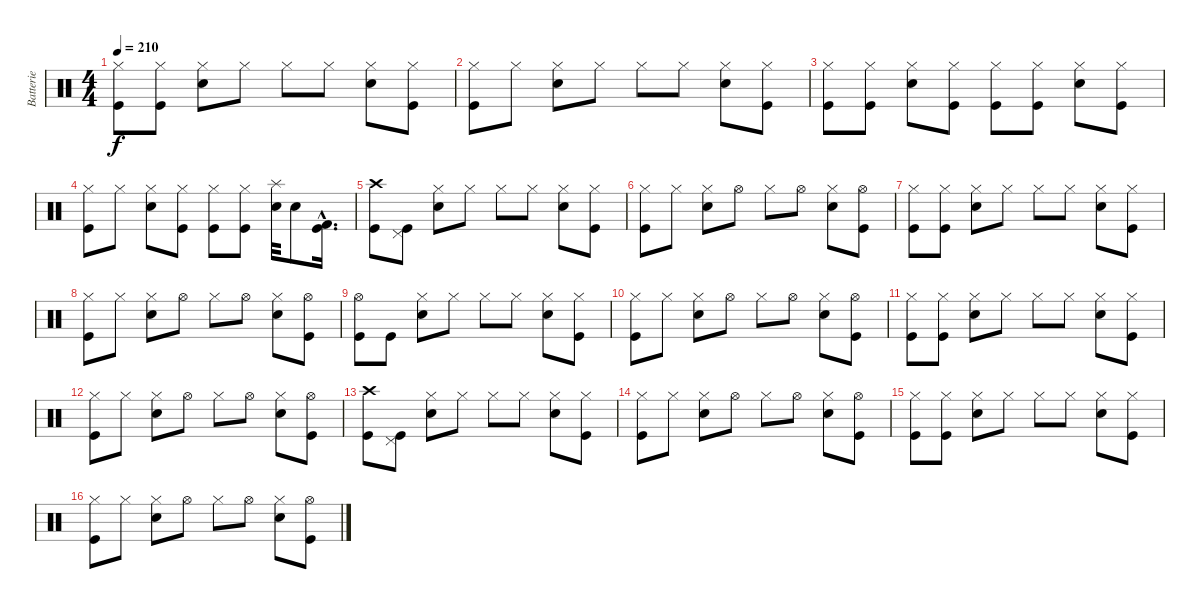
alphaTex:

\track ("Batterie" "Batterie") {instrument percussion}
\staff {score}
\articulation defaults
\ts (4 4)
\tempo 210
\clef neutral
\ks c
("Hi-Hat (closed)" "Kick (hit)").8{dy f} ("Hi-Hat (closed)" "Kick (hit)").8 ("Hi-Hat (closed)" "Snare (hit) 2").8 "Hi-Hat (closed)".8 "Hi-Hat (closed)".8 "Hi-Hat (closed)".8 ("Hi-Hat (closed)" "Snare (hit) 2").8 ("Hi-Hat (closed)" "Kick (hit)").8 |
("Hi-Hat (closed)" "Kick (hit)").8 "Hi-Hat (closed)".8 ("Hi-Hat (closed)" "Snare (hit) 2").8 "Hi-Hat (closed)".8 "Hi-Hat (closed)".8 "Hi-Hat (closed)".8 ("Hi-Hat (closed)" "Snare (hit) 2").8 ("Hi-Hat (closed)" "Kick (hit)").8 |
("Hi-Hat (closed)" "Kick (hit)").8 ("Hi-Hat (closed)" "Kick (hit)").8 ("Hi-Hat (closed)" "Snare (hit) 2").8 ("Hi-Hat (closed)" "Kick (hit)").8 ("Hi-Hat (closed)" "Kick (hit)").8 ("Hi-Hat (closed)" "Kick (hit)").8 ("Hi-Hat (closed)" "Snare (hit) 2").8 ("Hi-Hat (closed)" "Kick (hit)").8 |
("Hi-Hat (closed)" "Kick (hit)").8 "Hi-Hat (closed)".8 ("Hi-Hat (closed)" "Snare (hit) 2").8 ("Hi-Hat (closed)" "Kick (hit)").8 ("Hi-Hat (closed)" "Kick (hit)").8 ("Hi-Hat (closed)" "Kick (hit)").8 ("Splash (hit)" "Snare (hit) 2").32 "Snare (hit) 2".8 ("Kick (hit) 2"{hac} "Kick (hit)"{hac}).16{d} |
("Crash high (hit)" "Kick (hit)").8 ("Pedal Hi-Hat (hit)" "Kick (hit)").8 ("Hi-Hat (closed)" "Snare (hit) 2").8 "Hi-Hat (closed)".8 "Hi-Hat (closed)".8 "Hi-Hat (closed)".8 ("Hi-Hat (closed)" "Snare (hit) 2").8 ("Hi-Hat (closed)" "Kick (hit)").8 |
("Hi-Hat (closed)" "Kick (hit)").8 "Hi-Hat (closed)".8 ("Hi-Hat (closed)" "Snare (hit) 2").8 "Hi-Hat (open)".8 "Hi-Hat (closed)".8 "Hi-Hat (open)".8 ("Hi-Hat (closed)" "Snare (hit) 2").8 ("Hi-Hat (open)" "Kick (hit)").8 |
("Hi-Hat (closed)" "Kick (hit)").8 ("Hi-Hat (closed)" "Kick (hit)").8 ("Hi-Hat (closed)" "Snare (hit) 2").8 "Hi-Hat (closed)".8 "Hi-Hat (closed)".8 "Hi-Hat (closed)".8 ("Hi-Hat (closed)" "Snare (hit) 2").8 ("Hi-Hat (closed)" "Kick (hit)").8 |
("Hi-Hat (closed)" "Kick (hit)").8 "Hi-Hat (closed)".8 ("Hi-Hat (closed)" "Snare (hit) 2").8 "Hi-Hat (open)".8 "Hi-Hat (closed)".8 "Hi-Hat (open)".8 ("Hi-Hat (closed)" "Snare (hit) 2").8 ("Hi-Hat (open)" "Kick (hit)").8 |
("Hi-Hat (open)" "Kick (hit)").8 "Kick (hit)".8 ("Hi-Hat (closed)" "Snare (hit) 2").8 "Hi-Hat (closed)".8 "Hi-Hat (closed)".8 "Hi-Hat (closed)".8 ("Hi-Hat (closed)" "Snare (hit) 2").8 ("Hi-Hat (closed)" "Kick (hit)").8 |
("Hi-Hat (closed)" "Kick (hit)").8 "Hi-Hat (closed)".8 ("Hi-Hat (closed)" "Snare (hit) 2").8 "Hi-Hat (open)".8 "Hi-Hat (closed)".8 "Hi-Hat (open)".8 ("Hi-Hat (closed)" "Snare (hit) 2").8 ("Hi-Hat (open)" "Kick (hit)").8 |
("Hi-Hat (closed)" "Kick (hit)").8 ("Hi-Hat (closed)" "Kick (hit)").8 ("Hi-Hat (closed)" "Snare (hit) 2").8 "Hi-Hat (closed)".8 "Hi-Hat (closed)".8 "Hi-Hat (closed)".8 ("Hi-Hat (closed)" "Snare (hit) 2").8 ("Hi-Hat (closed)" "Kick (hit)").8 |
("Hi-Hat (closed)" "Kick (hit)").8 "Hi-Hat (closed)".8 ("Hi-Hat (closed)" "Snare (hit) 2").8 "Hi-Hat (open)".8 "Hi-Hat (closed)".8 "Hi-Hat (open)".8 ("Hi-Hat (closed)" "Snare (hit) 2").8 ("Hi-Hat (open)" "Kick (hit)").8 |
("Crash high (hit)" "Kick (hit)").8 ("Pedal Hi-Hat (hit)" "Kick (hit)").8 ("Hi-Hat (closed)" "Snare (hit) 2").8 "Hi-Hat (closed)".8 "Hi-Hat (closed)".8 "Hi-Hat (closed)".8 ("Hi-Hat (closed)" "Snare (hit) 2").8 ("Hi-Hat (closed)" "Kick (hit)").8 |
("Hi-Hat (closed)" "Kick (hit)").8 "Hi-Hat (closed)".8 ("Hi-Hat (closed)" "Snare (hit) 2").8 "Hi-Hat (open)".8 "Hi-Hat (closed)".8 "Hi-Hat (open)".8 ("Hi-Hat (closed)" "Snare (hit) 2").8 ("Hi-Hat (open)" "Kick (hit)").8 |
("Hi-Hat (closed)" "Kick (hit)").8 ("Hi-Hat (closed)" "Kick (hit)").8 ("Hi-Hat (closed)" "Snare (hit) 2").8 "Hi-Hat (closed)".8 "Hi-Hat (closed)".8 "Hi-Hat (closed)".8 ("Hi-Hat (closed)" "Snare (hit) 2").8 ("Hi-Hat (closed)" "Kick (hit)").8 |
("Hi-Hat (closed)" "Kick (hit)").8 "Hi-Hat (closed)".8 ("Hi-Hat (closed)" "Snare (hit) 2").8 "Hi-Hat (open)".8 "Hi-Hat (closed)".8 "Hi-Hat (open)".8 ("Hi-Hat (closed)" "Snare (hit) 2").8 ("Hi-Hat (open)" "Kick (hit)").8
